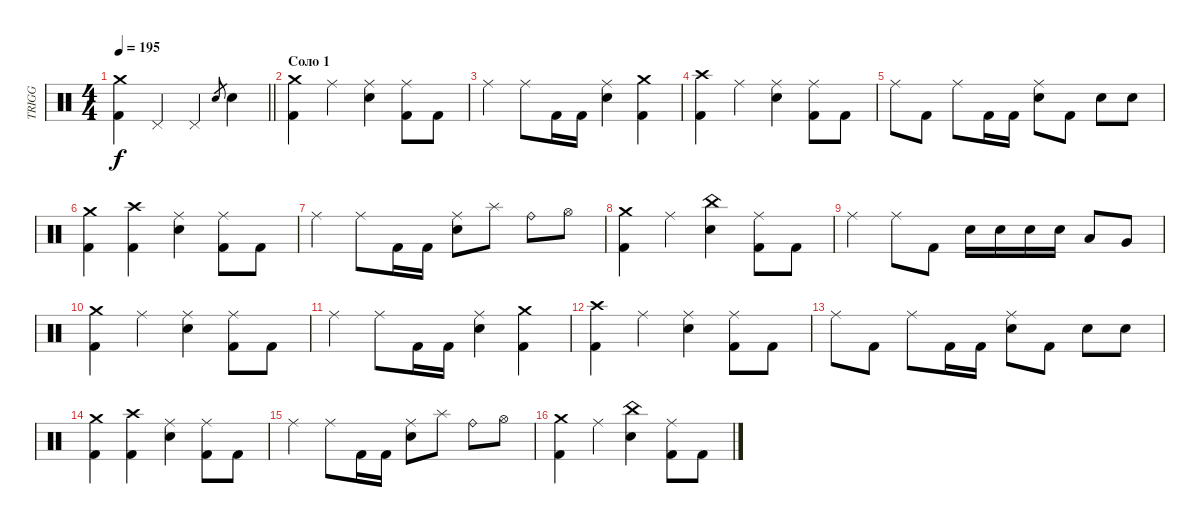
\track ("TRIGG" "TRIGG") {instrument percussion}
\staff {score}
\articulation defaults
\ts (4 4)
\tempo 195
\clef neutral
\barLineRight lightlight
\ks c
("Crash medium (hit)" "Kick (hit) 2").4{dy f} "Pedal Hi-Hat (hit)".4 "Pedal Hi-Hat (hit)".4 "Electric Snare (hit)".8{gr} "Electric Snare (hit)".4 |
\section ("" "Соло 1")
("Crash medium (hit)" "Kick (hit) 2").4 "Ride (middle)".4 ("Ride (middle)" "Electric Snare (hit)").4 ("Ride (middle)" "Kick (hit) 2").8 "Kick (hit) 2".8 |
"Ride (middle)".4 "Ride (middle)".8 "Kick (hit) 2".16 "Kick (hit) 2".16 ("Ride (middle)" "Electric Snare (hit)").4 ("Crash medium (hit)" "Kick (hit) 2").4 |
("Crash high (hit)" "Kick (hit) 2").4 "Ride (middle)".4 ("Ride (middle)" "Electric Snare (hit)").4 ("Ride (middle)" "Kick (hit) 2").8 "Kick (hit) 2".8 |
"Ride (middle)".8 "Kick (hit) 2".8 "Ride (middle)".8 "Kick (hit) 2".16 "Kick (hit) 2".16 ("Ride (middle)" "Electric Snare (hit)").8 "Kick (hit) 2".8 "Electric Snare (hit)".8 "Electric Snare (hit)".8 |
("Crash medium (hit)" "Kick (hit) 2").4 ("Crash high (hit)" "Kick (hit) 2").4 ("Ride (middle)" "Electric Snare (hit)").4 ("Ride (middle)" "Kick (hit) 2").8 "Kick (hit) 2".8 |
"Ride (middle)".4 "Ride (middle)".8 "Kick (hit) 2".16 "Kick (hit) 2".16 ("Ride (middle)" "Electric Snare (hit)").8 "Splash (hit)".8 "Ride (bell)".8 "Hi-Hat (open)".8 |
("Crash medium (hit)" "Kick (hit) 2").4 "Ride (middle)".4 ("China (hit)" "Electric Snare (hit)").4 ("Ride (middle)" "Kick (hit) 2").8 "Kick (hit) 2".8 |
"Ride (middle)".4 "Ride (middle)".8 "Kick (hit) 2".8 "Electric Snare (hit)".16 "Electric Snare (hit)".16 "Electric Snare (hit)".16 "Electric Snare (hit)".16 "Low Tom (hit)".8 "Very Low Tom (hit)".8 |
("Crash medium (hit)" "Kick (hit) 2").4 "Ride (middle)".4 ("Ride (middle)" "Electric Snare (hit)").4 ("Ride (middle)" "Kick (hit) 2").8 "Kick (hit) 2".8 |
"Ride (middle)".4 "Ride (middle)".8 "Kick (hit) 2".16 "Kick (hit) 2".16 ("Ride (middle)" "Electric Snare (hit)").4 ("Crash medium (hit)" "Kick (hit) 2").4 |
("Crash high (hit)" "Kick (hit) 2").4 "Ride (middle)".4 ("Ride (middle)" "Electric Snare (hit)").4 ("Ride (middle)" "Kick (hit) 2").8 "Kick (hit) 2".8 |
"Ride (middle)".8 "Kick (hit) 2".8 "Ride (middle)".8 "Kick (hit) 2".16 "Kick (hit) 2".16 ("Ride (middle)" "Electric Snare (hit)").8 "Kick (hit) 2".8 "Electric Snare (hit)".8 "Electric Snare (hit)".8 |
("Crash medium (hit)" "Kick (hit) 2").4 ("Crash high (hit)" "Kick (hit) 2").4 ("Ride (middle)" "Electric Snare (hit)").4 ("Ride (middle)" "Kick (hit) 2").8 "Kick (hit) 2".8 |
"Ride (middle)".4 "Ride (middle)".8 "Kick (hit) 2".16 "Kick (hit) 2".16 ("Ride (middle)" "Electric Snare (hit)").8 "Splash (hit)".8 "Ride (bell)".8 "Hi-Hat (open)".8 |
("Crash medium (hit)" "Kick (hit) 2").4 "Ride (middle)".4 ("China (hit)" "Electric Snare (hit)").4 ("Ride (middle)" "Kick (hit) 2").8 "Kick (hit) 2".8
